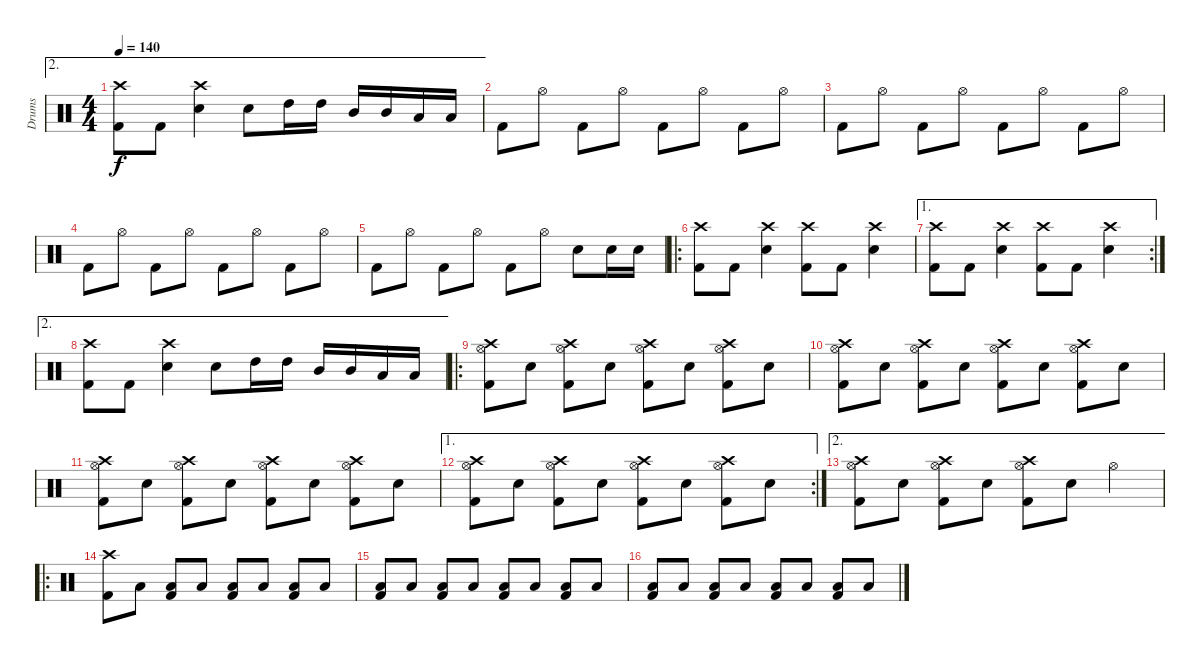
\track ("Drums" "Drums") {instrument percussion}
\staff {score}
\articulation defaults
\ae 2
\ts (4 4)
\tempo 140
\clef neutral
\ks c
("Crash high (hit)" "Kick (hit) 2").8{dy f} "Kick (hit) 2".8 ("Crash high (hit)" "Snare (hit) 2").4 "Snare (hit) 2".8 "High Tom (hit)".16 "High Tom (hit)".16 "Mid Tom (hit)".16 "Mid Tom (hit)".16 "Low Tom (hit)".16 "Low Tom (hit)".16 |
"Kick (hit) 2".8 "Hi-Hat (open)".8 "Kick (hit) 2".8 "Hi-Hat (open)".8 "Kick (hit) 2".8 "Hi-Hat (open)".8 "Kick (hit) 2".8 "Hi-Hat (open)".8 |
"Kick (hit) 2".8 "Hi-Hat (open)".8 "Kick (hit) 2".8 "Hi-Hat (open)".8 "Kick (hit) 2".8 "Hi-Hat (open)".8 "Kick (hit) 2".8 "Hi-Hat (open)".8 |
"Kick (hit) 2".8 "Hi-Hat (open)".8 "Kick (hit) 2".8 "Hi-Hat (open)".8 "Kick (hit) 2".8 "Hi-Hat (open)".8 "Kick (hit) 2".8 "Hi-Hat (open)".8 |
"Kick (hit) 2".8 "Hi-Hat (open)".8 "Kick (hit) 2".8 "Hi-Hat (open)".8 "Kick (hit) 2".8 "Hi-Hat (open)".8 "Snare (hit) 2".8 "Snare (hit) 2".16 "Snare (hit) 2".16 |
\ro
("Crash high (hit)" "Kick (hit) 2").8 "Kick (hit) 2".8 ("Crash high (hit)" "Snare (hit) 2").4 ("Crash high (hit)" "Kick (hit) 2").8 "Kick (hit) 2".8 ("Crash high (hit)" "Snare (hit) 2").4 |
\ae 1
\rc 2
("Crash high (hit)" "Kick (hit) 2").8 "Kick (hit) 2".8 ("Crash high (hit)" "Snare (hit) 2").4 ("Crash high (hit)" "Kick (hit) 2").8 "Kick (hit) 2".8 ("Crash high (hit)" "Snare (hit) 2").4 |
\ae 2
("Crash high (hit)" "Kick (hit) 2").8 "Kick (hit) 2".8 ("Crash high (hit)" "Snare (hit) 2").4 "Snare (hit) 2".8 "High Tom (hit)".16 "High Tom (hit)".16 "Mid Tom (hit)".16 "Mid Tom (hit)".16 "Low Tom (hit)".16 "Low Tom (hit)".16 |
\ro
("Crash high (hit)" "Hi-Hat (open)" "Kick (hit) 2").8 "Snare (hit) 2".8 ("Crash high (hit)" "Hi-Hat (open)" "Kick (hit) 2").8 "Snare (hit) 2".8 ("Crash high (hit)" "Hi-Hat (open)" "Kick (hit) 2").8 "Snare (hit) 2".8 ("Crash high (hit)" "Hi-Hat (open)" "Kick (hit) 2").8 "Snare (hit) 2".8 |
("Crash high (hit)" "Hi-Hat (open)" "Kick (hit) 2").8 "Snare (hit) 2".8 ("Crash high (hit)" "Hi-Hat (open)" "Kick (hit) 2").8 "Snare (hit) 2".8 ("Crash high (hit)" "Hi-Hat (open)" "Kick (hit) 2").8 "Snare (hit) 2".8 ("Crash high (hit)" "Hi-Hat (open)" "Kick (hit) 2").8 "Snare (hit) 2".8 |
("Crash high (hit)" "Hi-Hat (open)" "Kick (hit) 2").8 "Snare (hit) 2".8 ("Crash high (hit)" "Hi-Hat (open)" "Kick (hit) 2").8 "Snare (hit) 2".8 ("Crash high (hit)" "Hi-Hat (open)" "Kick (hit) 2").8 "Snare (hit) 2".8 ("Crash high (hit)" "Hi-Hat (open)" "Kick (hit) 2").8 "Snare (hit) 2".8 |
\ae 1
\rc 2
("Crash high (hit)" "Hi-Hat (open)" "Kick (hit) 2").8 "Snare (hit) 2".8 ("Crash high (hit)" "Hi-Hat (open)" "Kick (hit) 2").8 "Snare (hit) 2".8 ("Crash high (hit)" "Hi-Hat (open)" "Kick (hit) 2").8 "Snare (hit) 2".8 ("Crash high (hit)" "Hi-Hat (open)" "Kick (hit) 2").8 "Snare (hit) 2".8 |
\ae 2
("Crash high (hit)" "Hi-Hat (open)" "Kick (hit) 2").8 "Snare (hit) 2".8 ("Crash high (hit)" "Hi-Hat (open)" "Kick (hit) 2").8 "Snare (hit) 2".8 ("Crash high (hit)" "Hi-Hat (open)" "Kick (hit) 2").8 "Snare (hit) 2".8 "Hi-Hat (open)".4 |
\ro
("Crash high (hit)" "Kick (hit) 2").8 "Low Tom (hit)".8 ("Low Tom (hit)" "Kick (hit) 2").8 "Low Tom (hit)".8 ("Low Tom (hit)" "Kick (hit) 2").8 "Low Tom (hit)".8 ("Low Tom (hit)" "Kick (hit) 2").8 "Low Tom (hit)".8 |
("Low Tom (hit)" "Kick (hit) 2").8 "Low Tom (hit)".8 ("Low Tom (hit)" "Kick (hit) 2").8 "Low Tom (hit)".8 ("Low Tom (hit)" "Kick (hit) 2").8 "Low Tom (hit)".8 ("Low Tom (hit)" "Kick (hit) 2").8 "Low Tom (hit)".8 |
("Low Tom (hit)" "Kick (hit) 2").8 "Low Tom (hit)".8 ("Low Tom (hit)" "Kick (hit) 2").8 "Low Tom (hit)".8 ("Low Tom (hit)" "Kick (hit) 2").8 "Low Tom (hit)".8 ("Low Tom (hit)" "Kick (hit) 2").8 "Low Tom (hit)".8
